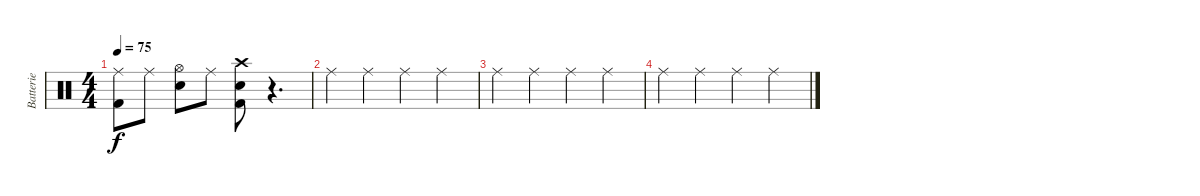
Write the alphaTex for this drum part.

\track ("Batterie" "Batterie") {instrument percussion}
\staff {score}
\articulation defaults
\ts (4 4)
\tempo 75
\clef neutral
\ks c
("Ride (middle)" "Kick (hit) 2").8{dy f} "Ride (middle)".8 ("Hi-Hat (open)" "Snare (hit) 2").8 "Ride (middle)".8 ("Crash high (hit)" "Snare (hit) 2" "Kick (hit) 2").8 r.4{d} |
"Ride (middle)".4 "Ride (middle)".4 "Ride (middle)".4 "Ride (middle)".4 |
"Ride (middle)".4 "Ride (middle)".4 "Ride (middle)".4 "Ride (middle)".4 |
"Ride (middle)".4 "Ride (middle)".4 "Ride (middle)".4 "Ride (middle)".4
